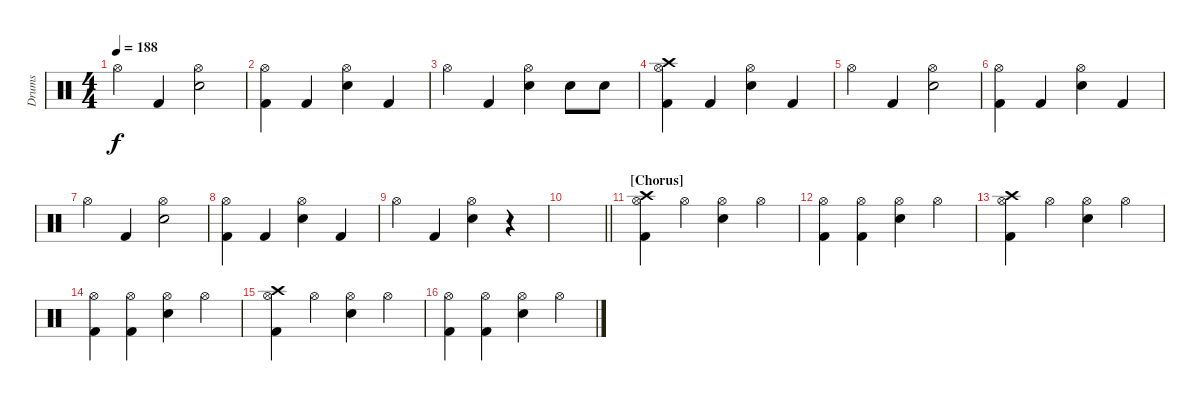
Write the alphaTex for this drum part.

\track ("Drums" "Drums") {instrument percussion}
\staff {score}
\articulation defaults
\ts (4 4)
\tempo 188
\clef neutral
\ks c "Hi-Hat (open)".4{dy f} "Kick (hit) 2".4
("Hi-Hat (open)" "Electric Snare (hit)").2 |
("Hi-Hat (open)" "Kick (hit) 2").4 "Kick (hit) 2".4 ("Hi-Hat (open)" "Electric Snare (hit)").4 "Kick (hit) 2".4 |
"Hi-Hat (open)".4 "Kick (hit) 2".4 ("Hi-Hat (open)" "Electric Snare (hit)").4 "Electric Snare (hit)".8 "Electric Snare (hit)".8 |
("Crash high (hit)" "Hi-Hat (open)" "Kick (hit) 2").4 "Kick (hit) 2".4 ("Hi-Hat (open)" "Electric Snare (hit)").4 "Kick (hit) 2".4 |
"Hi-Hat (open)".4 "Kick (hit) 2".4 ("Hi-Hat (open)" "Electric Snare (hit)").2 |
("Hi-Hat (open)" "Kick (hit) 2").4 "Kick (hit) 2".4 ("Hi-Hat (open)" "Electric Snare (hit)").4 "Kick (hit) 2".4 |
"Hi-Hat (open)".4 "Kick (hit) 2".4 ("Hi-Hat (open)" "Electric Snare (hit)").2 |
("Hi-Hat (open)" "Kick (hit) 2").4 "Kick (hit) 2".4 ("Hi-Hat (open)" "Electric Snare (hit)").4 "Kick (hit) 2".4 |
"Hi-Hat (open)".4 "Kick (hit) 2".4 ("Hi-Hat (open)" "Electric Snare (hit)").4 r.4 |
\barLineRight lightlight
|
\section ("" "[Chorus]")
("Crash high (hit)" "Hi-Hat (open)" "Kick (hit) 2").4 "Hi-Hat (open)".4 ("Hi-Hat (open)" "Electric Snare (hit)").4 "Hi-Hat (open)".4 |
("Hi-Hat (open)" "Kick (hit) 2").4 ("Hi-Hat (open)" "Kick (hit) 2").4 ("Hi-Hat (open)" "Electric Snare (hit)").4 "Hi-Hat (open)".4 |
("Crash high (hit)" "Hi-Hat (open)" "Kick (hit) 2").4 "Hi-Hat (open)".4 ("Hi-Hat (open)" "Electric Snare (hit)").4 "Hi-Hat (open)".4 |
("Hi-Hat (open)" "Kick (hit) 2").4 ("Hi-Hat (open)" "Kick (hit) 2").4 ("Hi-Hat (open)" "Electric Snare (hit)").4 "Hi-Hat (open)".4 |
("Crash high (hit)" "Hi-Hat (open)" "Kick (hit) 2").4 "Hi-Hat (open)".4 ("Hi-Hat (open)" "Electric Snare (hit)").4 "Hi-Hat (open)".4 |
("Hi-Hat (open)" "Kick (hit) 2").4 ("Hi-Hat (open)" "Kick (hit) 2").4 ("Hi-Hat (open)" "Electric Snare (hit)").4 "Hi-Hat (open)".4
